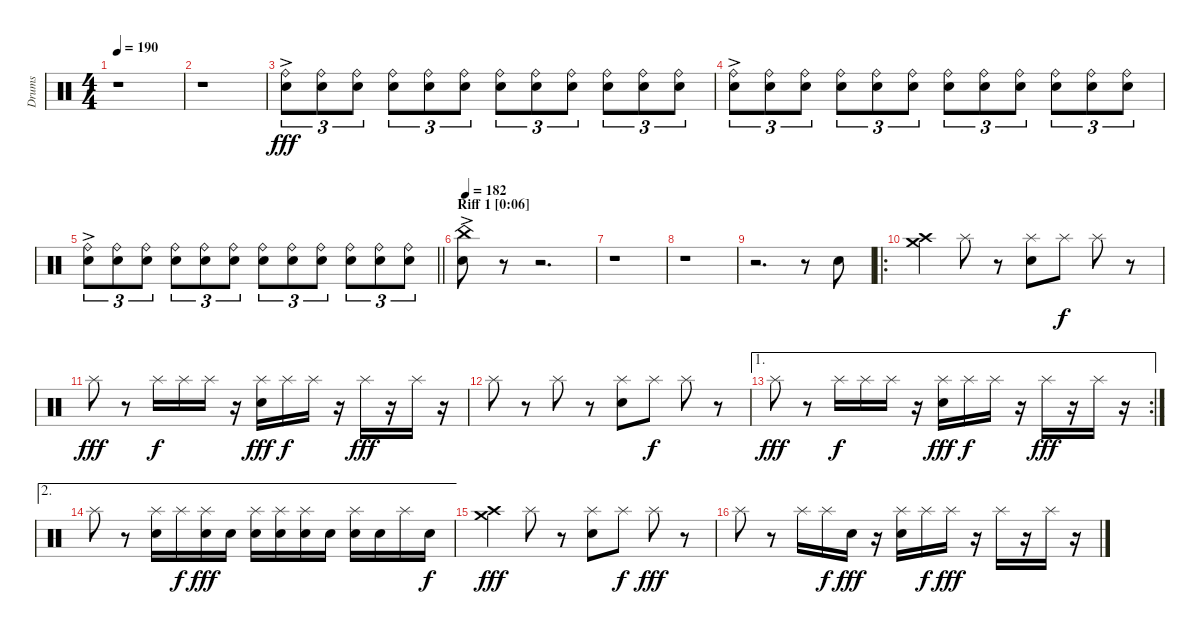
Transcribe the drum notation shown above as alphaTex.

\track ("Drums" "Drums") {instrument percussion}
\staff {score}
\articulation defaults
\ts (4 4)
\tempo 190
\clef neutral
\ks c
r.1{dy fff} |
r.1 |
("Ride (bell)"{ac} "Electric Snare (hit)").8{tu (3 2)} ("Ride (bell)" "Electric Snare (hit)").8{tu (3 2)} ("Ride (bell)" "Electric Snare (hit)").8{tu (3 2)} ("Ride (bell)" "Electric Snare (hit)").8{tu (3 2)} ("Ride (bell)" "Electric Snare (hit)").8{tu (3 2)} ("Ride (bell)" "Electric Snare (hit)").8{tu (3 2)} ("Ride (bell)" "Electric Snare (hit)").8{tu (3 2)} ("Ride (bell)" "Electric Snare (hit)").8{tu (3 2)} ("Ride (bell)" "Electric Snare (hit)").8{tu (3 2)} ("Ride (bell)" "Electric Snare (hit)").8{tu (3 2)} ("Ride (bell)" "Electric Snare (hit)").8{tu (3 2)} ("Ride (bell)" "Electric Snare (hit)").8{tu (3 2)} |
("Ride (bell)"{ac} "Electric Snare (hit)").8{tu (3 2)} ("Ride (bell)" "Electric Snare (hit)").8{tu (3 2)} ("Ride (bell)" "Electric Snare (hit)").8{tu (3 2)} ("Ride (bell)" "Electric Snare (hit)").8{tu (3 2)} ("Ride (bell)" "Electric Snare (hit)").8{tu (3 2)} ("Ride (bell)" "Electric Snare (hit)").8{tu (3 2)} ("Ride (bell)" "Electric Snare (hit)").8{tu (3 2)} ("Ride (bell)" "Electric Snare (hit)").8{tu (3 2)} ("Ride (bell)" "Electric Snare (hit)").8{tu (3 2)} ("Ride (bell)" "Electric Snare (hit)").8{tu (3 2)} ("Ride (bell)" "Electric Snare (hit)").8{tu (3 2)} ("Ride (bell)" "Electric Snare (hit)").8{tu (3 2)} |
\barLineRight lightlight
("Ride (bell)"{ac} "Electric Snare (hit)").8{tu (3 2)} ("Ride (bell)" "Electric Snare (hit)").8{tu (3 2)} ("Ride (bell)" "Electric Snare (hit)").8{tu (3 2)} ("Ride (bell)" "Electric Snare (hit)").8{tu (3 2)} ("Ride (bell)" "Electric Snare (hit)").8{tu (3 2)} ("Ride (bell)" "Electric Snare (hit)").8{tu (3 2)} ("Ride (bell)" "Electric Snare (hit)").8{tu (3 2)} ("Ride (bell)" "Electric Snare (hit)").8{tu (3 2)} ("Ride (bell)" "Electric Snare (hit)").8{tu (3 2)} ("Ride (bell)" "Electric Snare (hit)").8{tu (3 2)} ("Ride (bell)" "Electric Snare (hit)").8{tu (3 2)} ("Ride (bell)" "Electric Snare (hit)").8{tu (3 2)} |
\section ("" "Riff 1 [0:06]")
\tempo 182
("China (hit)" "Electric Snare (hit)"{ac}).8 r.8 r.2{d} |
r.1 |
r.1 |
r.2{d} r.8 "Electric Snare (hit)".8 |
\ro
("Crash high (hit)" "Crash medium (hit)").4 "Splash (hit)".8 r.8 ("Splash (hit)" "Electric Snare (hit)").8 "Splash (hit)".8{dy f} "Splash (hit)".8 r.8 |
"Splash (hit)".8{dy fff} r.8 "Splash (hit)".16{dy f} "Splash (hit)".16 "Splash (hit)".16 r.16 ("Splash (hit)" "Electric Snare (hit)").16{dy fff} "Splash (hit)".16{dy f} "Splash (hit)".16 r.16 "Splash (hit)".16{dy fff} r.16 "Splash (hit)".16 r.16 |
"Splash (hit)".8 r.8 "Splash (hit)".8 r.8 ("Splash (hit)" "Electric Snare (hit)").8 "Splash (hit)".8{dy f} "Splash (hit)".8 r.8 |
\ae 1
\rc 2 "Splash (hit)".8{dy fff}
r.8 "Splash (hit)".16{dy f} "Splash (hit)".16 "Splash (hit)".16 r.16 ("Splash (hit)" "Electric Snare (hit)").16{dy fff} "Splash (hit)".16{dy f} "Splash (hit)".16 r.16 "Splash (hit)".16{dy fff} r.16 "Splash (hit)".16 r.16 |
\ae 2 "Splash (hit)".8
r.8 ("Splash (hit)" "Electric Snare (hit)").16 "Splash (hit)".16{dy f} ("Splash (hit)" "Electric Snare (hit)").16{dy fff} "Electric Snare (hit)".16 ("Splash (hit)" "Electric Snare (hit)").16 ("Splash (hit)" "Electric Snare (hit)").16 ("Splash (hit)" "Electric Snare (hit)").16 "Electric Snare (hit)".16 ("Splash (hit)" "Electric Snare (hit)").16 "Electric Snare (hit)".16 "Splash (hit)".16 "Electric Snare (hit)".16{dy f} |
("Crash high (hit)" "Crash medium (hit)").4{dy fff} "Splash (hit)".8 r.8 ("Splash (hit)" "Electric Snare (hit)").8 "Splash (hit)".8{dy f} "Splash (hit)".8{dy fff} r.8 |
"Splash (hit)".8 r.8 "Splash (hit)".16 "Splash (hit)".16{dy f} "Snare (hit)".16{dy fff} r.16 ("Splash (hit)" "Electric Snare (hit)").16 "Splash (hit)".16{dy f} "Splash (hit)".16{dy fff} r.16 "Splash (hit)".16 r.16 "Splash (hit)".16 r.16
